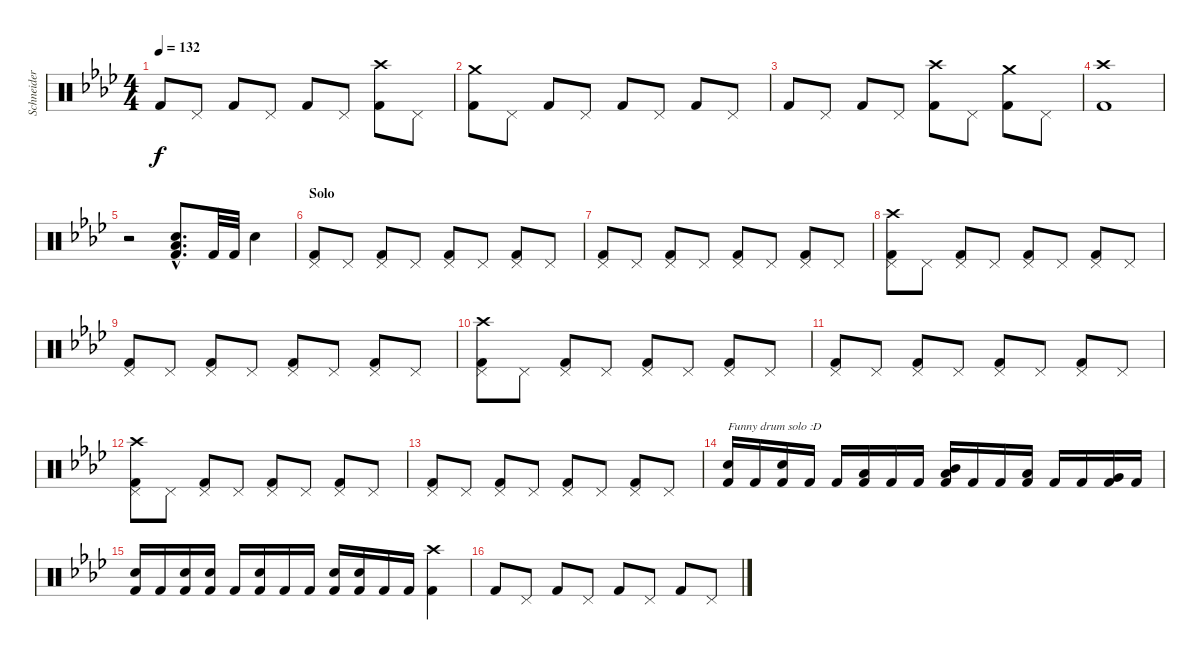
\track ("Schneider" "Schneider") {instrument percussion}
\staff {score}
\articulation defaults
\ts (4 4)
\tempo 132
\clef neutral
\ks fminor "Kick (hit) 2".8{dy f} "Pedal Hi-Hat (hit)".8 "Kick (hit) 2".8 "Pedal Hi-Hat (hit)".8 "Kick (hit) 2".8 "Pedal Hi-Hat (hit)".8
("Crash high (hit)" "Kick (hit) 2").8 "Pedal Hi-Hat (hit)".8 |
("Crash medium (hit)" "Kick (hit) 2").8 "Pedal Hi-Hat (hit)".8 "Kick (hit) 2".8 "Pedal Hi-Hat (hit)".8 "Kick (hit) 2".8 "Pedal Hi-Hat (hit)".8 "Kick (hit) 2".8 "Pedal Hi-Hat (hit)".8 |
"Kick (hit) 2".8 "Pedal Hi-Hat (hit)".8 "Kick (hit) 2".8 "Pedal Hi-Hat (hit)".8 ("Crash high (hit)" "Kick (hit) 2").8 "Pedal Hi-Hat (hit)".8 ("Crash medium (hit)" "Kick (hit) 2").8 "Pedal Hi-Hat (hit)".8 |
("Crash high (hit)" "Kick (hit) 2").1 |
r.2 ("Low Floor Tom (hit)"{hac} "Snare (hit) 2"{hac} "Kick (hit) 2"{hac}).8{d} "Kick (hit) 2".32 "Kick (hit) 2".32 "Snare (hit) 2".4 |
\section ("" "Solo")
("Pedal Hi-Hat (hit)" "Kick (hit) 2").8 "Pedal Hi-Hat (hit)".8 ("Pedal Hi-Hat (hit)" "Kick (hit) 2").8 "Pedal Hi-Hat (hit)".8 ("Pedal Hi-Hat (hit)" "Kick (hit) 2").8 "Pedal Hi-Hat (hit)".8 ("Pedal Hi-Hat (hit)" "Kick (hit) 2").8 "Pedal Hi-Hat (hit)".8 |
("Pedal Hi-Hat (hit)" "Kick (hit) 2").8 "Pedal Hi-Hat (hit)".8 ("Pedal Hi-Hat (hit)" "Kick (hit) 2").8 "Pedal Hi-Hat (hit)".8 ("Pedal Hi-Hat (hit)" "Kick (hit) 2").8 "Pedal Hi-Hat (hit)".8 ("Pedal Hi-Hat (hit)" "Kick (hit) 2").8 "Pedal Hi-Hat (hit)".8 |
("Crash high (hit)" "Pedal Hi-Hat (hit)" "Kick (hit) 2").8 "Pedal Hi-Hat (hit)".8 ("Pedal Hi-Hat (hit)" "Kick (hit) 2").8 "Pedal Hi-Hat (hit)".8 ("Pedal Hi-Hat (hit)" "Kick (hit) 2").8 "Pedal Hi-Hat (hit)".8 ("Pedal Hi-Hat (hit)" "Kick (hit) 2").8 "Pedal Hi-Hat (hit)".8 |
("Pedal Hi-Hat (hit)" "Kick (hit) 2").8 "Pedal Hi-Hat (hit)".8 ("Pedal Hi-Hat (hit)" "Kick (hit) 2").8 "Pedal Hi-Hat (hit)".8 ("Pedal Hi-Hat (hit)" "Kick (hit) 2").8 "Pedal Hi-Hat (hit)".8 ("Pedal Hi-Hat (hit)" "Kick (hit) 2").8 "Pedal Hi-Hat (hit)".8 |
("Crash high (hit)" "Pedal Hi-Hat (hit)" "Kick (hit) 2").8 "Pedal Hi-Hat (hit)".8 ("Pedal Hi-Hat (hit)" "Kick (hit) 2").8 "Pedal Hi-Hat (hit)".8 ("Pedal Hi-Hat (hit)" "Kick (hit) 2").8 "Pedal Hi-Hat (hit)".8 ("Pedal Hi-Hat (hit)" "Kick (hit) 2").8 "Pedal Hi-Hat (hit)".8 |
("Pedal Hi-Hat (hit)" "Kick (hit) 2").8 "Pedal Hi-Hat (hit)".8 ("Pedal Hi-Hat (hit)" "Kick (hit) 2").8 "Pedal Hi-Hat (hit)".8 ("Pedal Hi-Hat (hit)" "Kick (hit) 2").8 "Pedal Hi-Hat (hit)".8 ("Pedal Hi-Hat (hit)" "Kick (hit) 2").8 "Pedal Hi-Hat (hit)".8 |
("Crash high (hit)" "Pedal Hi-Hat (hit)" "Kick (hit) 2").8 "Pedal Hi-Hat (hit)".8 ("Pedal Hi-Hat (hit)" "Kick (hit) 2").8 "Pedal Hi-Hat (hit)".8 ("Pedal Hi-Hat (hit)" "Kick (hit) 2").8 "Pedal Hi-Hat (hit)".8 ("Pedal Hi-Hat (hit)" "Kick (hit) 2").8 "Pedal Hi-Hat (hit)".8 |
("Pedal Hi-Hat (hit)" "Kick (hit) 2").8 "Pedal Hi-Hat (hit)".8 ("Pedal Hi-Hat (hit)" "Kick (hit) 2").8 "Pedal Hi-Hat (hit)".8 ("Pedal Hi-Hat (hit)" "Kick (hit) 2").8 "Pedal Hi-Hat (hit)".8 ("Pedal Hi-Hat (hit)" "Kick (hit) 2").8 "Pedal Hi-Hat (hit)".8 |
("Snare (hit) 2" "Kick (hit) 2").16{txt "Funny drum solo :D"} "Kick (hit) 2".16 ("Snare (hit) 2" "Kick (hit) 2").16 "Kick (hit) 2".16 "Kick (hit) 2".16 ("Low Tom (hit)" "Kick (hit) 2").16 "Kick (hit) 2".16 "Kick (hit) 2".16 ("Mid Tom (hit)" "Low Floor Tom (hit)" "Kick (hit) 2").16 "Kick (hit) 2".16 "Kick (hit) 2".16 ("Low Floor Tom (hit)" "Kick (hit) 2").16 "Kick (hit) 2".16 "Kick (hit) 2".16 ("Very Low Tom (hit)" "Kick (hit) 2").16 "Kick (hit) 2".16 |
("Snare (hit) 2" "Kick (hit) 2").16 "Kick (hit) 2".16 ("Snare (hit) 2" "Kick (hit) 2").16 ("Snare (hit) 2" "Kick (hit) 2").16 "Kick (hit) 2".16 ("Snare (hit) 2" "Kick (hit) 2").16 "Kick (hit) 2".16 "Kick (hit) 2".16 ("Snare (hit) 2" "Kick (hit) 2").16 ("Snare (hit) 2" "Kick (hit) 2").16 "Kick (hit) 2".16 "Kick (hit) 2".16 ("Crash high (hit)" "Kick (hit) 2").4 |
"Kick (hit) 2".8 "Pedal Hi-Hat (hit)".8 "Kick (hit) 2".8 "Pedal Hi-Hat (hit)".8 "Kick (hit) 2".8 "Pedal Hi-Hat (hit)".8 "Kick (hit) 2".8 "Pedal Hi-Hat (hit)".8
